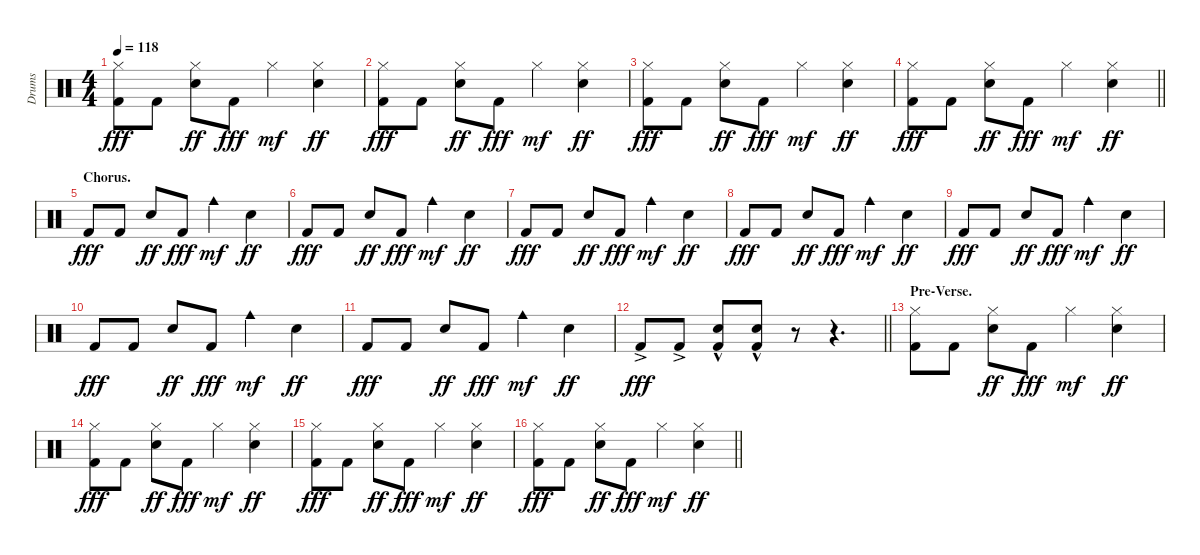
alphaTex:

\track ("Drums" "Drums") {instrument percussion}
\staff {score}
\articulation defaults
\ts (4 4)
\tempo 118
\clef neutral
\ks c
("Hi-Hat (closed)" "Kick (hit) 2").8{dy fff} "Kick (hit) 2".8 ("Hi-Hat (closed)" "Snare (hit) 2").8{dy ff} "Kick (hit) 2".8{dy fff} "Hi-Hat (closed)".4{dy mf} ("Hi-Hat (closed)" "Snare (hit) 2").4{dy ff} |
("Hi-Hat (closed)" "Kick (hit) 2").8{dy fff} "Kick (hit) 2".8 ("Hi-Hat (closed)" "Snare (hit) 2").8{dy ff} "Kick (hit) 2".8{dy fff} "Hi-Hat (closed)".4{dy mf} ("Hi-Hat (closed)" "Snare (hit) 2").4{dy ff} |
("Hi-Hat (closed)" "Kick (hit) 2").8{dy fff} "Kick (hit) 2".8 ("Hi-Hat (closed)" "Snare (hit) 2").8{dy ff} "Kick (hit) 2".8{dy fff} "Hi-Hat (closed)".4{dy mf} ("Hi-Hat (closed)" "Snare (hit) 2").4{dy ff} |
\barLineRight lightlight
("Hi-Hat (closed)" "Kick (hit) 2").8{dy fff} "Kick (hit) 2".8 ("Hi-Hat (closed)" "Snare (hit) 2").8{dy ff} "Kick (hit) 2".8{dy fff} "Hi-Hat (closed)".4{dy mf} ("Hi-Hat (closed)" "Snare (hit) 2").4{dy ff} |
\section ("" "Chorus.")
"Kick (hit) 2".8{dy fff} "Kick (hit) 2".8 "Snare (hit) 2".8{dy ff} "Kick (hit) 2".8{dy fff} "Cowbell medium (hit)".4{dy mf} "Snare (hit) 2".4{dy ff} |
"Kick (hit) 2".8{dy fff} "Kick (hit) 2".8 "Snare (hit) 2".8{dy ff} "Kick (hit) 2".8{dy fff} "Cowbell medium (hit)".4{dy mf} "Snare (hit) 2".4{dy ff} |
"Kick (hit) 2".8{dy fff} "Kick (hit) 2".8 "Snare (hit) 2".8{dy ff} "Kick (hit) 2".8{dy fff} "Cowbell medium (hit)".4{dy mf} "Snare (hit) 2".4{dy ff} |
"Kick (hit) 2".8{dy fff} "Kick (hit) 2".8 "Snare (hit) 2".8{dy ff} "Kick (hit) 2".8{dy fff} "Cowbell medium (hit)".4{dy mf} "Snare (hit) 2".4{dy ff} |
"Kick (hit) 2".8{dy fff} "Kick (hit) 2".8 "Snare (hit) 2".8{dy ff} "Kick (hit) 2".8{dy fff} "Cowbell medium (hit)".4{dy mf} "Snare (hit) 2".4{dy ff} |
"Kick (hit) 2".8{dy fff} "Kick (hit) 2".8 "Snare (hit) 2".8{dy ff} "Kick (hit) 2".8{dy fff} "Cowbell medium (hit)".4{dy mf} "Snare (hit) 2".4{dy ff} |
"Kick (hit) 2".8{dy fff} "Kick (hit) 2".8 "Snare (hit) 2".8{dy ff} "Kick (hit) 2".8{dy fff} "Cowbell medium (hit)".4{dy mf} "Snare (hit) 2".4{dy ff} |
\barLineRight lightlight "Kick (hit) 2"{ac}.8{dy fff} "Kick (hit) 2"{ac}.8
("Snare (hit) 2" "Kick (hit) 2"{hac}).8 ("Snare (hit) 2"{hac} "Kick (hit) 2"{hac}).8 r.8 r.4{d} |
\section ("" "Pre-Verse.")
("Hi-Hat (closed)" "Kick (hit) 2").8 "Kick (hit) 2".8 ("Hi-Hat (closed)" "Snare (hit) 2").8{dy ff} "Kick (hit) 2".8{dy fff} "Hi-Hat (closed)".4{dy mf} ("Hi-Hat (closed)" "Snare (hit) 2").4{dy ff} |
("Hi-Hat (closed)" "Kick (hit) 2").8{dy fff} "Kick (hit) 2".8 ("Hi-Hat (closed)" "Snare (hit) 2").8{dy ff} "Kick (hit) 2".8{dy fff} "Hi-Hat (closed)".4{dy mf} ("Hi-Hat (closed)" "Snare (hit) 2").4{dy ff} |
("Hi-Hat (closed)" "Kick (hit) 2").8{dy fff} "Kick (hit) 2".8 ("Hi-Hat (closed)" "Snare (hit) 2").8{dy ff} "Kick (hit) 2".8{dy fff} "Hi-Hat (closed)".4{dy mf} ("Hi-Hat (closed)" "Snare (hit) 2").4{dy ff} |
\barLineRight lightlight
("Hi-Hat (closed)" "Kick (hit) 2").8{dy fff} "Kick (hit) 2".8 ("Hi-Hat (closed)" "Snare (hit) 2").8{dy ff} "Kick (hit) 2".8{dy fff} "Hi-Hat (closed)".4{dy mf} ("Hi-Hat (closed)" "Snare (hit) 2").4{dy ff}
